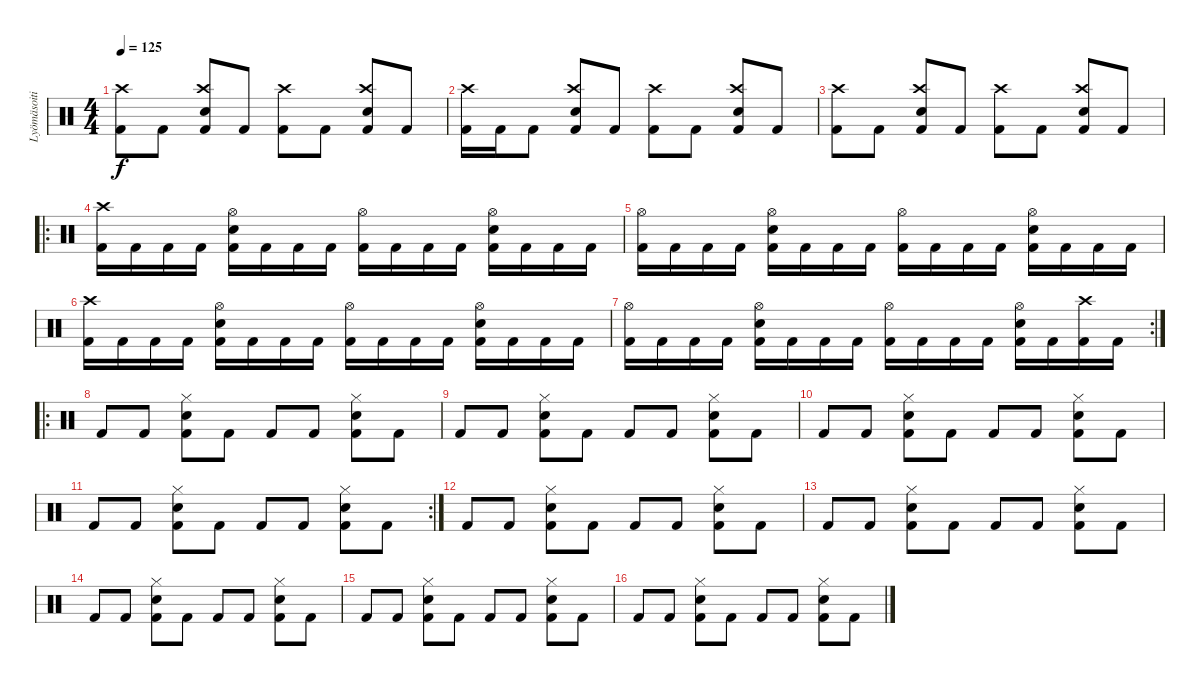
\track ("Lyömäsoitin" "Lyömäsoiti") {instrument percussion}
\staff {score}
\articulation defaults
\ts (4 4)
\tempo 125
\clef neutral
\ks c
("Kick (hit) 2" "Crash high (hit)").8{dy f} "Kick (hit) 2".8 ("Kick (hit) 2" "Crash high (hit)" "Electric Snare (hit)").8 "Kick (hit) 2".8 ("Kick (hit) 2" "Crash high (hit)").8 "Kick (hit) 2".8 ("Kick (hit) 2" "Crash high (hit)" "Electric Snare (hit)").8 "Kick (hit) 2".8 |
("Kick (hit) 2" "Crash high (hit)").16 "Kick (hit) 2".16 "Kick (hit) 2".8 ("Kick (hit) 2" "Crash high (hit)" "Electric Snare (hit)").8 "Kick (hit) 2".8 ("Kick (hit) 2" "Crash high (hit)").8 "Kick (hit) 2".8 ("Kick (hit) 2" "Crash high (hit)" "Electric Snare (hit)").8 "Kick (hit) 2".8 |
("Kick (hit) 2" "Crash high (hit)").8 "Kick (hit) 2".8 ("Kick (hit) 2" "Crash high (hit)" "Electric Snare (hit)").8 "Kick (hit) 2".8 ("Kick (hit) 2" "Crash high (hit)").8 "Kick (hit) 2".8 ("Kick (hit) 2" "Crash high (hit)" "Electric Snare (hit)").8 "Kick (hit) 2".8 |
\ro
("Kick (hit) 2" "Crash high (hit)").16 "Kick (hit) 2".16 "Kick (hit) 2".16 "Kick (hit) 2".16 ("Kick (hit) 2" "Hi-Hat (open)" "Electric Snare (hit)").16 "Kick (hit) 2".16 "Kick (hit) 2".16 "Kick (hit) 2".16 ("Kick (hit) 2" "Hi-Hat (open)").16 "Kick (hit) 2".16 "Kick (hit) 2".16 "Kick (hit) 2".16 ("Kick (hit) 2" "Hi-Hat (open)" "Electric Snare (hit)").16 "Kick (hit) 2".16 "Kick (hit) 2".16 "Kick (hit) 2".16 |
("Kick (hit) 2" "Hi-Hat (open)").16 "Kick (hit) 2".16 "Kick (hit) 2".16 "Kick (hit) 2".16 ("Kick (hit) 2" "Hi-Hat (open)" "Electric Snare (hit)").16 "Kick (hit) 2".16 "Kick (hit) 2".16 "Kick (hit) 2".16 ("Kick (hit) 2" "Hi-Hat (open)").16 "Kick (hit) 2".16 "Kick (hit) 2".16 "Kick (hit) 2".16 ("Kick (hit) 2" "Hi-Hat (open)" "Electric Snare (hit)").16 "Kick (hit) 2".16 "Kick (hit) 2".16 "Kick (hit) 2".16 |
("Kick (hit) 2" "Crash high (hit)").16 "Kick (hit) 2".16 "Kick (hit) 2".16 "Kick (hit) 2".16 ("Kick (hit) 2" "Hi-Hat (open)" "Electric Snare (hit)").16 "Kick (hit) 2".16 "Kick (hit) 2".16 "Kick (hit) 2".16 ("Kick (hit) 2" "Hi-Hat (open)").16 "Kick (hit) 2".16 "Kick (hit) 2".16 "Kick (hit) 2".16 ("Kick (hit) 2" "Hi-Hat (open)" "Electric Snare (hit)").16 "Kick (hit) 2".16 "Kick (hit) 2".16 "Kick (hit) 2".16 |
\rc 2
("Kick (hit) 2" "Hi-Hat (open)").16 "Kick (hit) 2".16 "Kick (hit) 2".16 "Kick (hit) 2".16 ("Kick (hit) 2" "Hi-Hat (open)" "Electric Snare (hit)").16 "Kick (hit) 2".16 "Kick (hit) 2".16 "Kick (hit) 2".16 ("Kick (hit) 2" "Hi-Hat (open)").16 "Kick (hit) 2".16 "Kick (hit) 2".16 "Kick (hit) 2".16 ("Kick (hit) 2" "Hi-Hat (open)" "Electric Snare (hit)").16 "Kick (hit) 2".16 ("Kick (hit) 2" "Crash high (hit)").16 "Kick (hit) 2".16 |
\ro "Kick (hit) 2".8 "Kick (hit) 2".8
("Kick (hit) 2" "Hi-Hat (closed)" "Electric Snare (hit)").8 "Kick (hit) 2".8 "Kick (hit) 2".8 "Kick (hit) 2".8 ("Kick (hit) 2" "Hi-Hat (closed)" "Electric Snare (hit)").8 "Kick (hit) 2".8 |
"Kick (hit) 2".8 "Kick (hit) 2".8 ("Kick (hit) 2" "Hi-Hat (closed)" "Electric Snare (hit)").8 "Kick (hit) 2".8 "Kick (hit) 2".8 "Kick (hit) 2".8 ("Kick (hit) 2" "Hi-Hat (closed)" "Electric Snare (hit)").8 "Kick (hit) 2".8 |
"Kick (hit) 2".8 "Kick (hit) 2".8 ("Kick (hit) 2" "Hi-Hat (closed)" "Electric Snare (hit)").8 "Kick (hit) 2".8 "Kick (hit) 2".8 "Kick (hit) 2".8 ("Kick (hit) 2" "Hi-Hat (closed)" "Electric Snare (hit)").8 "Kick (hit) 2".8 |
\rc 2 "Kick (hit) 2".8 "Kick (hit) 2".8
("Kick (hit) 2" "Hi-Hat (closed)" "Electric Snare (hit)").8 "Kick (hit) 2".8 "Kick (hit) 2".8 "Kick (hit) 2".8 ("Kick (hit) 2" "Hi-Hat (closed)" "Electric Snare (hit)").8 "Kick (hit) 2".8 |
"Kick (hit) 2".8 "Kick (hit) 2".8 ("Kick (hit) 2" "Hi-Hat (closed)" "Electric Snare (hit)").8 "Kick (hit) 2".8 "Kick (hit) 2".8 "Kick (hit) 2".8 ("Kick (hit) 2" "Hi-Hat (closed)" "Electric Snare (hit)").8 "Kick (hit) 2".8 |
"Kick (hit) 2".8 "Kick (hit) 2".8 ("Kick (hit) 2" "Hi-Hat (closed)" "Electric Snare (hit)").8 "Kick (hit) 2".8 "Kick (hit) 2".8 "Kick (hit) 2".8 ("Kick (hit) 2" "Hi-Hat (closed)" "Electric Snare (hit)").8 "Kick (hit) 2".8 |
"Kick (hit) 2".8 "Kick (hit) 2".8 ("Kick (hit) 2" "Hi-Hat (closed)" "Electric Snare (hit)").8 "Kick (hit) 2".8 "Kick (hit) 2".8 "Kick (hit) 2".8 ("Kick (hit) 2" "Hi-Hat (closed)" "Electric Snare (hit)").8 "Kick (hit) 2".8 |
"Kick (hit) 2".8 "Kick (hit) 2".8 ("Kick (hit) 2" "Hi-Hat (closed)" "Electric Snare (hit)").8 "Kick (hit) 2".8 "Kick (hit) 2".8 "Kick (hit) 2".8 ("Kick (hit) 2" "Hi-Hat (closed)" "Electric Snare (hit)").8 "Kick (hit) 2".8 |
"Kick (hit) 2".8 "Kick (hit) 2".8 ("Kick (hit) 2" "Hi-Hat (closed)" "Electric Snare (hit)").8 "Kick (hit) 2".8 "Kick (hit) 2".8 "Kick (hit) 2".8 ("Kick (hit) 2" "Hi-Hat (closed)" "Electric Snare (hit)").8 "Kick (hit) 2".8
